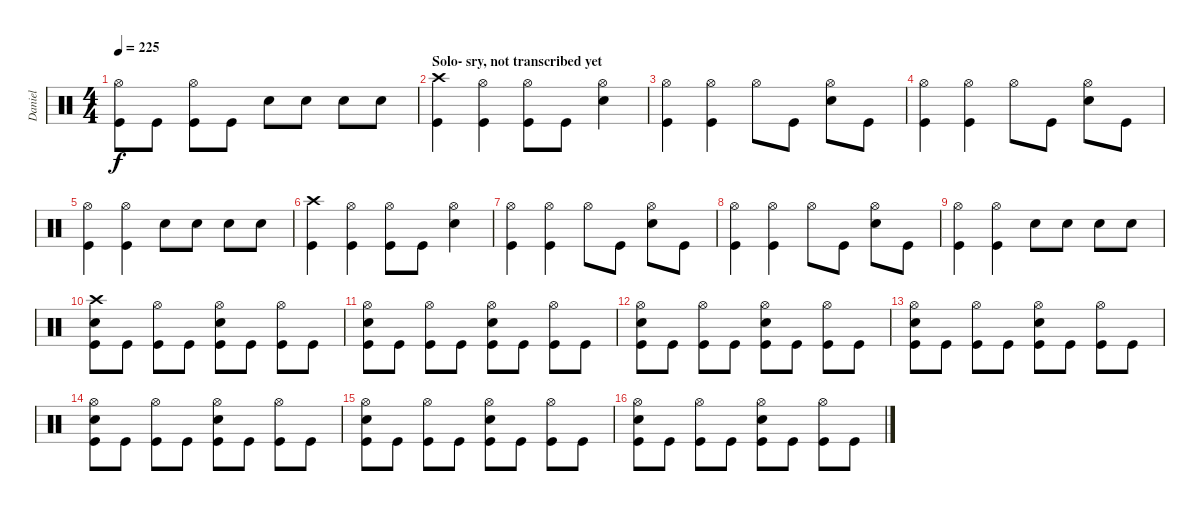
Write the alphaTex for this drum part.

\track ("Daniel" "Daniel") {instrument percussion}
\staff {score}
\articulation defaults
\ts (4 4)
\tempo 225
\clef neutral
\ks c
("Hi-Hat (open)" "Kick (hit)").8{dy f} "Kick (hit)".8 ("Hi-Hat (open)" "Kick (hit)").8 "Kick (hit)".8 "Snare (hit) 2".8 "Snare (hit) 2".8 "Snare (hit) 2".8 "Snare (hit) 2".8 |
\section ("" "Solo- sry, not transcribed yet")
("Crash high (hit)" "Kick (hit)").4 ("Hi-Hat (open)" "Kick (hit)").4 ("Hi-Hat (open)" "Kick (hit)").8 "Kick (hit)".8 ("Hi-Hat (open)" "Snare (hit) 2").4 |
("Hi-Hat (open)" "Kick (hit)").4 ("Hi-Hat (open)" "Kick (hit)").4 "Hi-Hat (open)".8 "Kick (hit)".8 ("Hi-Hat (open)" "Snare (hit) 2").8 "Kick (hit)".8 |
("Hi-Hat (open)" "Kick (hit)").4 ("Hi-Hat (open)" "Kick (hit)").4 "Hi-Hat (open)".8 "Kick (hit)".8 ("Hi-Hat (open)" "Snare (hit) 2").8 "Kick (hit)".8 |
("Hi-Hat (open)" "Kick (hit)").4 ("Hi-Hat (open)" "Kick (hit)").4 "Snare (hit) 2".8 "Snare (hit) 2".8 "Snare (hit) 2".8 "Snare (hit) 2".8 |
("Crash high (hit)" "Kick (hit)").4 ("Hi-Hat (open)" "Kick (hit)").4 ("Hi-Hat (open)" "Kick (hit)").8 "Kick (hit)".8 ("Hi-Hat (open)" "Snare (hit) 2").4 |
("Hi-Hat (open)" "Kick (hit)").4 ("Hi-Hat (open)" "Kick (hit)").4 "Hi-Hat (open)".8 "Kick (hit)".8 ("Hi-Hat (open)" "Snare (hit) 2").8 "Kick (hit)".8 |
("Hi-Hat (open)" "Kick (hit)").4 ("Hi-Hat (open)" "Kick (hit)").4 "Hi-Hat (open)".8 "Kick (hit)".8 ("Hi-Hat (open)" "Snare (hit) 2").8 "Kick (hit)".8 |
("Hi-Hat (open)" "Kick (hit)").4 ("Hi-Hat (open)" "Kick (hit)").4 "Snare (hit) 2".8 "Snare (hit) 2".8 "Snare (hit) 2".8 "Snare (hit) 2".8 |
("Crash high (hit)" "Snare (hit) 2" "Kick (hit)").8 "Kick (hit)".8 ("Hi-Hat (open)" "Kick (hit)").8 "Kick (hit)".8 ("Hi-Hat (open)" "Snare (hit) 2" "Kick (hit)").8 "Kick (hit)".8 ("Hi-Hat (open)" "Kick (hit)").8 "Kick (hit)".8 |
("Hi-Hat (open)" "Snare (hit) 2" "Kick (hit)").8 "Kick (hit)".8 ("Hi-Hat (open)" "Kick (hit)").8 "Kick (hit)".8 ("Hi-Hat (open)" "Snare (hit) 2" "Kick (hit)").8 "Kick (hit)".8 ("Hi-Hat (open)" "Kick (hit)").8 "Kick (hit)".8 |
("Hi-Hat (open)" "Snare (hit) 2" "Kick (hit)").8 "Kick (hit)".8 ("Hi-Hat (open)" "Kick (hit)").8 "Kick (hit)".8 ("Hi-Hat (open)" "Snare (hit) 2" "Kick (hit)").8 "Kick (hit)".8 ("Hi-Hat (open)" "Kick (hit)").8 "Kick (hit)".8 |
("Hi-Hat (open)" "Snare (hit) 2" "Kick (hit)").8 "Kick (hit)".8 ("Hi-Hat (open)" "Kick (hit)").8 "Kick (hit)".8 ("Hi-Hat (open)" "Snare (hit) 2" "Kick (hit)").8 "Kick (hit)".8 ("Hi-Hat (open)" "Kick (hit)").8 "Kick (hit)".8 |
("Hi-Hat (open)" "Snare (hit) 2" "Kick (hit)").8 "Kick (hit)".8 ("Hi-Hat (open)" "Kick (hit)").8 "Kick (hit)".8 ("Hi-Hat (open)" "Snare (hit) 2" "Kick (hit)").8 "Kick (hit)".8 ("Hi-Hat (open)" "Kick (hit)").8 "Kick (hit)".8 |
("Hi-Hat (open)" "Snare (hit) 2" "Kick (hit)").8 "Kick (hit)".8 ("Hi-Hat (open)" "Kick (hit)").8 "Kick (hit)".8 ("Hi-Hat (open)" "Snare (hit) 2" "Kick (hit)").8 "Kick (hit)".8 ("Hi-Hat (open)" "Kick (hit)").8 "Kick (hit)".8 |
("Hi-Hat (open)" "Snare (hit) 2" "Kick (hit)").8 "Kick (hit)".8 ("Hi-Hat (open)" "Kick (hit)").8 "Kick (hit)".8 ("Hi-Hat (open)" "Snare (hit) 2" "Kick (hit)").8 "Kick (hit)".8 ("Hi-Hat (open)" "Kick (hit)").8 "Kick (hit)".8
